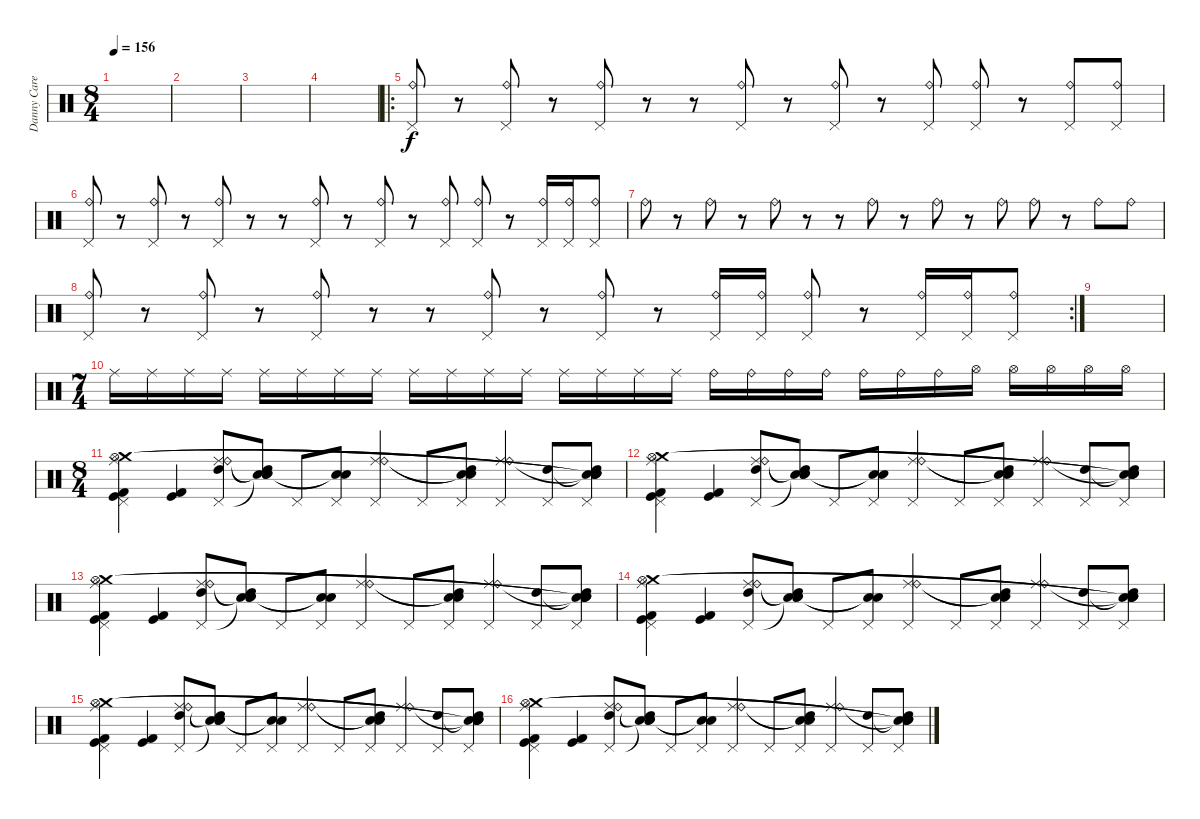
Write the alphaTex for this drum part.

\track ("Danny Carey " "Danny Care") {instrument percussion}
\staff {score}
\articulation defaults
\ts (8 4)
\tempo 156
\clef neutral
\ks c
|
|
|
|
\ro
("Pedal Hi-Hat (hit)" "Ride (bell)").8{volume 10} r.8 ("Pedal Hi-Hat (hit)" "Ride (bell)").8 r.8 ("Pedal Hi-Hat (hit)" "Ride (bell)").8 r.8 r.8 ("Pedal Hi-Hat (hit)" "Ride (bell)").8 r.8 ("Pedal Hi-Hat (hit)" "Ride (bell)").8 r.8 ("Ride (bell)" "Pedal Hi-Hat (hit)").8 ("Ride (bell)" "Pedal Hi-Hat (hit)").8 r.8 ("Ride (bell)" "Pedal Hi-Hat (hit)").8 ("Ride (bell)" "Pedal Hi-Hat (hit)").8 |
("Pedal Hi-Hat (hit)" "Ride (bell)").8 r.8 ("Pedal Hi-Hat (hit)" "Ride (bell)").8 r.8 ("Pedal Hi-Hat (hit)" "Ride (bell)").8 r.8 r.8 ("Pedal Hi-Hat (hit)" "Ride (bell)").8 r.8 ("Pedal Hi-Hat (hit)" "Ride (bell)").8 r.8 ("Ride (bell)" "Pedal Hi-Hat (hit)").8 ("Ride (bell)" "Pedal Hi-Hat (hit)").8 r.8 ("Ride (bell)" "Pedal Hi-Hat (hit)").16 ("Ride (bell)" "Pedal Hi-Hat (hit)").16 ("Ride (bell)" "Pedal Hi-Hat (hit)").8 |
"Ride (bell)".8 r.8 "Ride (bell)".8 r.8 "Ride (bell)".8 r.8 r.8 "Ride (bell)".8 r.8 "Ride (bell)".8 r.8 "Ride (bell)".8 "Ride (bell)".8 r.8 "Ride (bell)".8 "Ride (bell)".8 |
\rc 2
("Pedal Hi-Hat (hit)" "Ride (bell)").8 r.8 ("Pedal Hi-Hat (hit)" "Ride (bell)").8 r.8 ("Pedal Hi-Hat (hit)" "Ride (bell)").8 r.8 r.8 ("Pedal Hi-Hat (hit)" "Ride (bell)").8 r.8 ("Pedal Hi-Hat (hit)" "Ride (bell)").8 r.8 ("Ride (bell)" "Pedal Hi-Hat (hit)").16 ("Ride (bell)" "Pedal Hi-Hat (hit)").16 ("Ride (bell)" "Pedal Hi-Hat (hit)").8 r.8 ("Ride (bell)" "Pedal Hi-Hat (hit)").16 ("Ride (bell)" "Pedal Hi-Hat (hit)").16 ("Ride (bell)" "Pedal Hi-Hat (hit)").8 |
|
\ts (7 4)
"Ride (middle)".16{volume 9} "Ride (middle)".16 "Ride (middle)".16 "Ride (middle)".16 "Ride (middle)".16{volume 10} "Ride (middle)".16 "Ride (middle)".16 "Ride (middle)".16 "Ride (middle)".16{volume 11} "Ride (middle)".16 "Ride (middle)".16 "Ride (middle)".16 "Ride (middle)".16{volume 12} "Ride (middle)".16 "Ride (middle)".16 "Ride (middle)".16 "Ride (bell)".16{volume 12} "Ride (bell)".16 "Ride (bell)".16 "Ride (bell)".16 "Ride (bell)".16{volume 7} "Ride (bell)".16 "Ride (bell)".16 "Hi-Hat (open)".16 "Hi-Hat (open)".16{volume 14} "Hi-Hat (open)".16 "Hi-Hat (open)".16 "Hi-Hat (open)".16 |
\ts (8 4)
("Ride (middle)" "Pedal Hi-Hat (hit)" "Kick (hit)" "Kick (hit) 2" "Crash medium (hit)" "Hi-Hat (open)").4{volume 14} ("Kick (hit)" "Kick (hit) 2").4 ("Pedal Hi-Hat (hit)" "Ride (middle)" "Ride (bell)" "High Tom (hit)").8 ("Snare (hit)"{t} "Snare (hit)"{t} "Snare (hit)"{t} "High Tom (hit)").8 "Pedal Hi-Hat (hit)".8 ("Pedal Hi-Hat (hit)" "Snare (hit)"{t} "Snare (hit)"{t}).8 ("Pedal Hi-Hat (hit)" "Ride (middle)" "Ride (bell)").4 "Pedal Hi-Hat (hit)".8 ("Pedal Hi-Hat (hit)" "Snare (hit)"{t} "Snare (hit)"{t} "High Tom (hit)").8 ("Pedal Hi-Hat (hit)" "Ride (middle)" "Ride (bell)").4 ("Pedal Hi-Hat (hit)" "High Tom (hit)").8 ("Pedal Hi-Hat (hit)" "Snare (hit)"{t} "Snare (hit)"{t} "High Tom (hit)" "Snare (hit)"{t} "Snare (hit)"{t}).8 |
("Ride (middle)" "Pedal Hi-Hat (hit)" "Kick (hit)" "Kick (hit) 2" "Crash medium (hit)" "Hi-Hat (open)").4{volume 14} ("Kick (hit)" "Kick (hit) 2").4 ("Pedal Hi-Hat (hit)" "Ride (middle)" "Ride (bell)" "High Tom (hit)").8 ("Snare (hit)"{t} "Snare (hit)"{t} "Snare (hit)"{t} "High Tom (hit)").8 "Pedal Hi-Hat (hit)".8 ("Pedal Hi-Hat (hit)" "Snare (hit)"{t} "Snare (hit)"{t}).8 ("Pedal Hi-Hat (hit)" "Ride (middle)" "Ride (bell)").4 "Pedal Hi-Hat (hit)".8 ("Pedal Hi-Hat (hit)" "Snare (hit)"{t} "Snare (hit)"{t} "High Tom (hit)").8 ("Pedal Hi-Hat (hit)" "Ride (middle)" "Ride (bell)").4 ("Pedal Hi-Hat (hit)" "High Tom (hit)").8 ("Pedal Hi-Hat (hit)" "Snare (hit)"{t} "Snare (hit)"{t} "High Tom (hit)" "Snare (hit)"{t} "Snare (hit)"{t}).8 |
("Ride (middle)" "Pedal Hi-Hat (hit)" "Kick (hit)" "Kick (hit) 2" "Crash medium (hit)" "Hi-Hat (open)").4{volume 14} ("Kick (hit)" "Kick (hit) 2").4 ("Pedal Hi-Hat (hit)" "Ride (middle)" "Ride (bell)" "High Tom (hit)").8 ("Snare (hit)"{t} "Snare (hit)"{t} "Snare (hit)"{t} "High Tom (hit)").8 "Pedal Hi-Hat (hit)".8 ("Pedal Hi-Hat (hit)" "Snare (hit)"{t} "Snare (hit)"{t}).8 ("Pedal Hi-Hat (hit)" "Ride (middle)" "Ride (bell)").4 "Pedal Hi-Hat (hit)".8 ("Pedal Hi-Hat (hit)" "Snare (hit)"{t} "Snare (hit)"{t} "High Tom (hit)").8 ("Pedal Hi-Hat (hit)" "Ride (middle)" "Ride (bell)").4 ("Pedal Hi-Hat (hit)" "High Tom (hit)").8 ("Pedal Hi-Hat (hit)" "Snare (hit)"{t} "Snare (hit)"{t} "High Tom (hit)" "Snare (hit)"{t} "Snare (hit)"{t}).8 |
("Ride (middle)" "Pedal Hi-Hat (hit)" "Kick (hit)" "Kick (hit) 2" "Crash medium (hit)" "Hi-Hat (open)").4{volume 14} ("Kick (hit)" "Kick (hit) 2").4 ("Pedal Hi-Hat (hit)" "Ride (middle)" "Ride (bell)" "High Tom (hit)").8 ("Snare (hit)"{t} "Snare (hit)"{t} "Snare (hit)"{t} "High Tom (hit)").8 "Pedal Hi-Hat (hit)".8 ("Pedal Hi-Hat (hit)" "Snare (hit)"{t} "Snare (hit)"{t}).8 ("Pedal Hi-Hat (hit)" "Ride (middle)" "Ride (bell)").4 "Pedal Hi-Hat (hit)".8 ("Pedal Hi-Hat (hit)" "Snare (hit)"{t} "Snare (hit)"{t} "High Tom (hit)").8 ("Pedal Hi-Hat (hit)" "Ride (middle)" "Ride (bell)").4 ("Pedal Hi-Hat (hit)" "High Tom (hit)").8 ("Pedal Hi-Hat (hit)" "Snare (hit)"{t} "Snare (hit)"{t} "High Tom (hit)" "Snare (hit)"{t} "Snare (hit)"{t}).8 |
("Ride (middle)" "Pedal Hi-Hat (hit)" "Kick (hit)" "Kick (hit) 2" "Crash medium (hit)" "Hi-Hat (open)").4{volume 14} ("Kick (hit)" "Kick (hit) 2").4 ("Pedal Hi-Hat (hit)" "Ride (middle)" "Ride (bell)" "High Tom (hit)").8 ("Snare (hit)"{t} "Snare (hit)"{t} "Snare (hit)"{t} "High Tom (hit)").8 "Pedal Hi-Hat (hit)".8 ("Pedal Hi-Hat (hit)" "Snare (hit)"{t} "Snare (hit)"{t}).8 ("Pedal Hi-Hat (hit)" "Ride (middle)" "Ride (bell)").4 "Pedal Hi-Hat (hit)".8 ("Pedal Hi-Hat (hit)" "Snare (hit)"{t} "Snare (hit)"{t} "High Tom (hit)").8 ("Pedal Hi-Hat (hit)" "Ride (middle)" "Ride (bell)").4 ("Pedal Hi-Hat (hit)" "High Tom (hit)").8 ("Pedal Hi-Hat (hit)" "Snare (hit)"{t} "Snare (hit)"{t} "High Tom (hit)" "Snare (hit)"{t} "Snare (hit)"{t}).8 |
("Ride (middle)" "Pedal Hi-Hat (hit)" "Kick (hit)" "Kick (hit) 2" "Crash medium (hit)" "Hi-Hat (open)").4{volume 14} ("Kick (hit)" "Kick (hit) 2").4 ("Pedal Hi-Hat (hit)" "Ride (middle)" "Ride (bell)" "High Tom (hit)").8 ("Snare (hit)"{t} "Snare (hit)"{t} "Snare (hit)"{t} "High Tom (hit)").8 "Pedal Hi-Hat (hit)".8 ("Pedal Hi-Hat (hit)" "Snare (hit)"{t} "Snare (hit)"{t}).8 ("Pedal Hi-Hat (hit)" "Ride (middle)" "Ride (bell)").4 "Pedal Hi-Hat (hit)".8 ("Pedal Hi-Hat (hit)" "Snare (hit)"{t} "Snare (hit)"{t} "High Tom (hit)").8 ("Pedal Hi-Hat (hit)" "Ride (middle)" "Ride (bell)").4 ("Pedal Hi-Hat (hit)" "High Tom (hit)").8 ("Pedal Hi-Hat (hit)" "Snare (hit)"{t} "Snare (hit)"{t} "High Tom (hit)" "Snare (hit)"{t} "Snare (hit)"{t}).8
